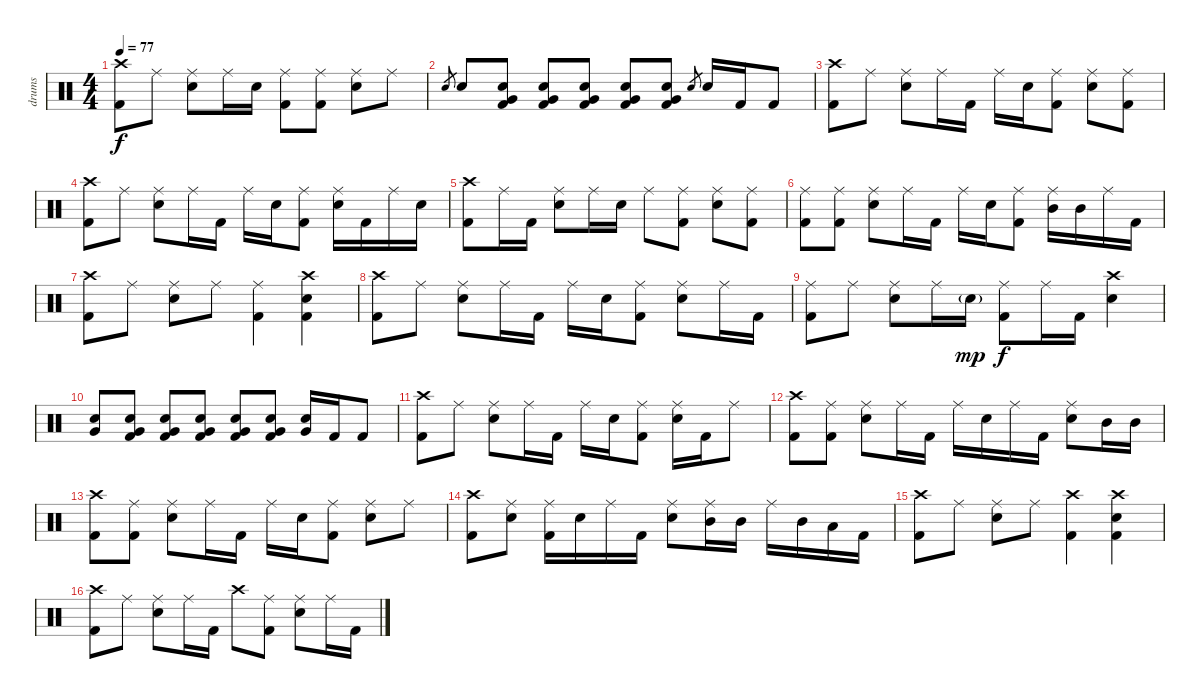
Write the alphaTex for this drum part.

\track ("drums" "drums") {instrument percussion}
\staff {score}
\articulation defaults
\ts (4 4)
\tempo 77
\clef neutral
\ks c
("Crash high (hit)" "Kick (hit) 2").8{dy f} "Ride (middle)".8 ("Ride (middle)" "Electric Snare (hit)").8 "Ride (middle)".16 "Electric Snare (hit)".16 ("Ride (middle)" "Kick (hit) 2").8 ("Ride (middle)" "Kick (hit) 2").8 ("Ride (middle)" "Electric Snare (hit)").8 "Ride (middle)".8 |
"Electric Snare (hit)".8{gr} "Electric Snare (hit)".8 ("Electric Snare (hit)" "Very Low Tom (hit)" "Kick (hit) 2").8 ("Electric Snare (hit)" "Very Low Tom (hit)" "Kick (hit) 2").8 ("Electric Snare (hit)" "Very Low Tom (hit)" "Kick (hit) 2").8 ("Electric Snare (hit)" "Very Low Tom (hit)" "Kick (hit) 2").8 ("Electric Snare (hit)" "Very Low Tom (hit)" "Kick (hit) 2").8 "Electric Snare (hit)".8{gr} "Electric Snare (hit)".16 "Kick (hit) 2".16 "Kick (hit) 2".8 |
("Crash high (hit)" "Kick (hit) 2").8 "Ride (middle)".8 ("Ride (middle)" "Electric Snare (hit)").8 "Ride (middle)".16 "Kick (hit) 2".16 "Ride (middle)".16 "Electric Snare (hit)".16 ("Ride (middle)" "Kick (hit) 2").8 ("Ride (middle)" "Electric Snare (hit)").8 ("Ride (middle)" "Kick (hit) 2").8 |
("Crash high (hit)" "Kick (hit) 2").8 "Ride (middle)".8 ("Ride (middle)" "Electric Snare (hit)").8 "Ride (middle)".16 "Kick (hit) 2".16 "Ride (middle)".16 "Electric Snare (hit)".16 ("Ride (middle)" "Kick (hit) 2").8 ("Ride (middle)" "Electric Snare (hit)").16 "Kick (hit) 2".16 "Ride (middle)".16 "Electric Snare (hit)".16 |
("Crash high (hit)" "Kick (hit) 2").8 "Ride (middle)".16 "Kick (hit) 2".16 ("Ride (middle)" "Electric Snare (hit)").8 "Ride (middle)".16 "Electric Snare (hit)".16 "Ride (middle)".8 ("Ride (middle)" "Kick (hit) 2").8 ("Ride (middle)" "Electric Snare (hit)").8 ("Ride (middle)" "Kick (hit) 2").8 |
("Ride (middle)" "Kick (hit) 2").8 ("Ride (middle)" "Kick (hit) 2").8 ("Ride (middle)" "Electric Snare (hit)").8 "Ride (middle)".16 "Kick (hit) 2".16 "Ride (middle)".16 "Electric Snare (hit)".16 ("Ride (middle)" "Kick (hit) 2").8 ("Ride (middle)" "Mid Tom (hit)").16 "Mid Tom (hit)".16 "Ride (middle)".16 "Kick (hit) 2".16 |
("Crash high (hit)" "Kick (hit) 2").8 "Ride (middle)".8 ("Ride (middle)" "Electric Snare (hit)").8 "Ride (middle)".8 ("Ride (middle)" "Kick (hit) 2").4 ("Crash high (hit)" "Electric Snare (hit)" "Kick (hit) 2").4 |
("Crash high (hit)" "Kick (hit) 2").8 "Ride (middle)".8 ("Ride (middle)" "Electric Snare (hit)").8 "Ride (middle)".16 "Kick (hit) 2".16 "Ride (middle)".16 "Electric Snare (hit)".16 ("Ride (middle)" "Kick (hit) 2").8 ("Ride (middle)" "Electric Snare (hit)").8 "Ride (middle)".16 "Kick (hit) 2".16 |
("Ride (middle)" "Kick (hit) 2").8 "Ride (middle)".8 ("Ride (middle)" "Electric Snare (hit)").8 "Ride (middle)".16 "Electric Snare (hit)"{g}.16{dy mp} ("Ride (middle)" "Kick (hit) 2").8{dy f} "Ride (middle)".16 "Kick (hit) 2".16 ("Crash high (hit)" "Electric Snare (hit)").4 |
("Electric Snare (hit)" "Very Low Tom (hit)").8 ("Electric Snare (hit)" "Very Low Tom (hit)" "Kick (hit) 2").8 ("Electric Snare (hit)" "Very Low Tom (hit)" "Kick (hit) 2").8 ("Electric Snare (hit)" "Very Low Tom (hit)" "Kick (hit) 2").8 ("Electric Snare (hit)" "Very Low Tom (hit)" "Kick (hit) 2").8 ("Electric Snare (hit)" "Very Low Tom (hit)" "Kick (hit) 2").8 ("Electric Snare (hit)" "Very Low Tom (hit)").16 "Kick (hit) 2".16 "Kick (hit) 2".8 |
("Crash high (hit)" "Kick (hit) 2").8 "Ride (middle)".8 ("Ride (middle)" "Electric Snare (hit)").8 "Ride (middle)".16 "Kick (hit) 2".16 "Ride (middle)".16 "Electric Snare (hit)".16 ("Ride (middle)" "Kick (hit) 2").8 ("Ride (middle)" "Electric Snare (hit)").16 "Kick (hit) 2".16 "Ride (middle)".8 |
("Crash high (hit)" "Kick (hit) 2").8 ("Ride (middle)" "Kick (hit) 2").8 ("Ride (middle)" "Electric Snare (hit)").8 "Ride (middle)".16 "Kick (hit) 2".16 "Ride (middle)".16 "Electric Snare (hit)".16 "Ride (middle)".16 "Kick (hit) 2".16 ("Ride (middle)" "Electric Snare (hit)").8 "Mid Tom (hit)".16 "Mid Tom (hit)".16 |
("Crash high (hit)" "Kick (hit) 2").8 ("Ride (middle)" "Kick (hit) 2").8 ("Ride (middle)" "Electric Snare (hit)").8 "Ride (middle)".16 "Kick (hit) 2".16 "Ride (middle)".16 "Electric Snare (hit)".16 ("Ride (middle)" "Kick (hit) 2").8 ("Ride (middle)" "Electric Snare (hit)").8 "Ride (middle)".8 |
("Crash high (hit)" "Kick (hit) 2").8 ("Ride (middle)" "Electric Snare (hit)").8 ("Ride (middle)" "Kick (hit) 2").16 "Electric Snare (hit)".16 "Ride (middle)".16 "Kick (hit) 2".16 ("Ride (middle)" "Electric Snare (hit)").8 ("Ride (middle)" "Mid Tom (hit)").16 "Mid Tom (hit)".16 "Ride (middle)".16 "Mid Tom (hit)".16 "Low Tom (hit)".16 "Kick (hit) 2".16 |
("Crash high (hit)" "Kick (hit) 2").8 "Ride (middle)".8 ("Ride (middle)" "Electric Snare (hit)").8 "Ride (middle)".8 ("Crash high (hit)" "Kick (hit) 2").4 ("Crash high (hit)" "Electric Snare (hit)" "Kick (hit) 2").4 |
("Crash high (hit)" "Kick (hit) 2").8 "Ride (middle)".8 ("Ride (middle)" "Electric Snare (hit)").8 "Ride (middle)".16 "Kick (hit) 2".16 "Crash high (hit)".8 ("Ride (middle)" "Kick (hit) 2").8 ("Ride (middle)" "Electric Snare (hit)").8 "Ride (middle)".16 "Kick (hit) 2".16
